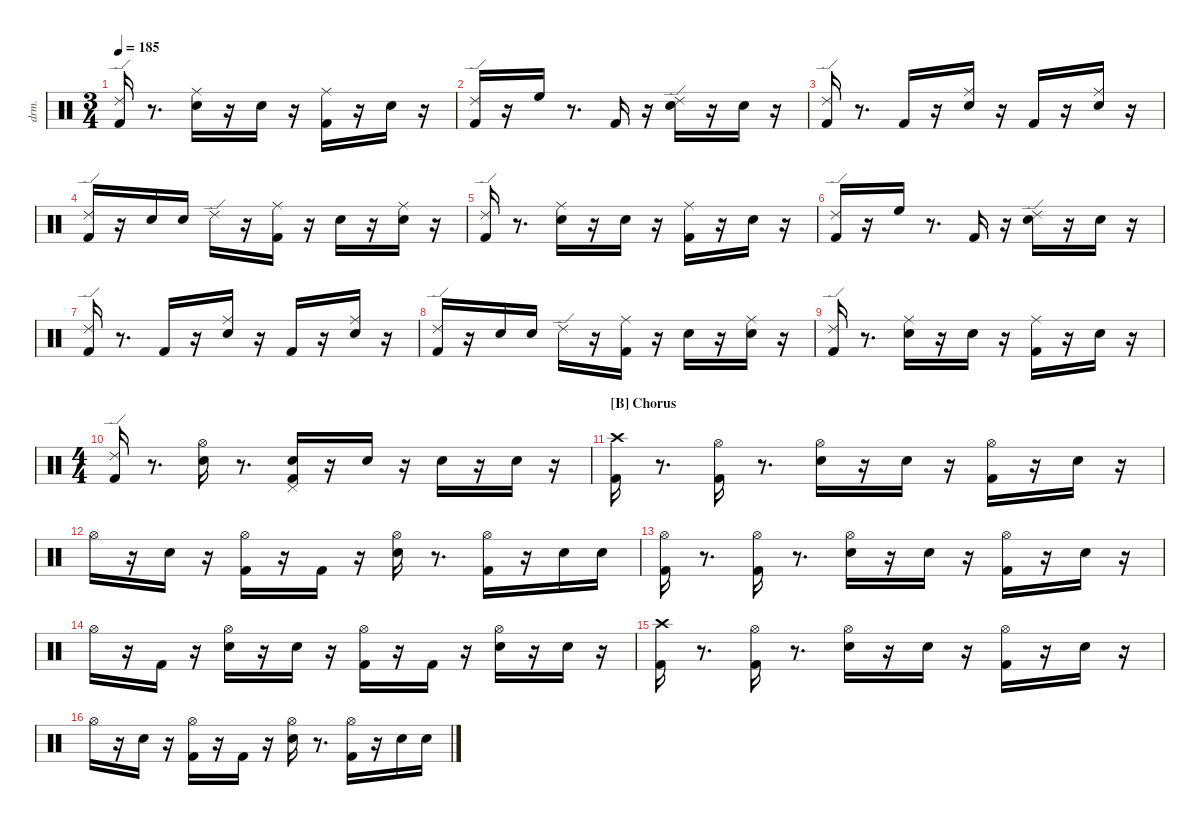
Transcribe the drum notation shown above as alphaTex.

\defaultSystemsLayout 4
\hideDynamics
\bracketExtendMode nobrackets
\otherSystemsTrackNameOrientation horizontal
\track ("drums" "drm.") {instrument percussion}
\staff {score}
\articulation defaults
\ts (3 4)
\tempo 185
\clef neutral
\ks aminor
("Kick (hit) 2" "Ride (edge) 2").16{dy ff beam Up} r.8{d beam Up} ("Snare (hit) 2" "Ride (middle)"{acc #}).16{beam Down} r.16{beam Down} "Snare (hit) 2".16{dy mf beam Down} r.16{beam Down} ("Kick (hit) 2" "Ride (middle)"{acc #}).16{dy ff beam Down} r.16{beam Down} "Snare (hit) 2".16{dy f beam Down} r.16{beam Down} |
("Kick (hit) 2" "Ride (edge) 2").16{dy ff beam Up} r.16{beam Up} "High Floor Tom (hit)".16{beam Down} r.8{d beam Down} "Kick (hit) 2".16{beam Up} r.16{beam Up} ("Snare (hit) 2" "Ride (edge) 2").16{dy fff beam Down} r.16{beam Down} "Snare (hit) 2".16{dy p beam Down} r.16{beam Down} |
("Kick (hit) 2" "Ride (edge) 2").16{dy ff beam Up} r.8{d beam Up} "Kick (hit) 2".16{beam Up} r.16{beam Up} ("Snare (hit) 2" "Ride (middle)"{acc #}).16{dy f beam Down} r.16{beam Down} "Kick (hit) 2".16{dy ff beam Up} r.16{beam Up} ("Snare (hit) 2" "Ride (middle)"{acc #}).16{beam Down} r.16{beam Down} |
("Kick (hit) 2" "Ride (edge) 2").16{beam Up} r.16{beam Up} "Snare (hit) 2".16{beam Down} "Snare (hit) 2".16{dy mf beam Down} "Ride (edge) 2".16{beam Down} r.16{beam Down} ("Kick (hit) 2" "Ride (middle)"{acc #}).16{dy ff beam Down} r.16{beam Down} "Snare (hit) 2".16{beam Down} r.16{beam Down} ("Snare (hit) 2" "Ride (middle)"{acc #}).16{dy mf beam Down} r.16{beam Down} |
("Kick (hit) 2" "Ride (edge) 2").16{dy ff beam Up} r.8{d beam Up} ("Snare (hit) 2" "Ride (middle)"{acc #}).16{beam Down} r.16{beam Down} "Snare (hit) 2".16{dy mf beam Down} r.16{beam Down} ("Kick (hit) 2" "Ride (middle)"{acc #}).16{dy ff beam Down} r.16{beam Down} "Snare (hit) 2".16{dy f beam Down} r.16{beam Down} |
("Kick (hit) 2" "Ride (edge) 2").16{dy ff beam Up} r.16{beam Up} "High Floor Tom (hit)".16{beam Down} r.8{d beam Down} "Kick (hit) 2".16{beam Up} r.16{beam Up} ("Snare (hit) 2" "Ride (edge) 2").16{dy fff beam Down} r.16{beam Down} "Snare (hit) 2".16{dy mp beam Down} r.16{beam Down} |
("Kick (hit) 2" "Ride (edge) 2").16{dy ff beam Up} r.8{d beam Up} "Kick (hit) 2".16{beam Up} r.16{beam Up} ("Snare (hit) 2" "Ride (middle)"{acc #}).16{dy f beam Down} r.16{beam Down} "Kick (hit) 2".16{dy ff beam Up} r.16{beam Up} ("Snare (hit) 2" "Ride (middle)"{acc #}).16{beam Down} r.16{beam Down} |
("Kick (hit) 2" "Ride (edge) 2").16{beam Up} r.16{beam Up} "Snare (hit) 2".16{beam Down} "Snare (hit) 2".16{dy mf beam Down} "Ride (edge) 2".16{beam Down} r.16{beam Down} ("Kick (hit) 2" "Ride (middle)"{acc #}).16{dy fff beam Down} r.16{beam Down} "Snare (hit) 2".16{dy ff beam Down} r.16{beam Down} ("Snare (hit) 2" "Ride (middle)"{acc #}).16{dy fff beam Down} r.16{beam Down} |
("Kick (hit) 2" "Ride (edge) 2").16{dy ff beam Up} r.8{d beam Up} ("Snare (hit) 2" "Ride (middle)"{acc #}).16{beam Down} r.16{beam Down} "Snare (hit) 2".16{dy mf beam Down} r.16{beam Down} ("Kick (hit) 2" "Ride (middle)"{acc #}).16{dy ff beam Down} r.16{beam Down} "Snare (hit) 2".16{dy f beam Down} r.16{beam Down} |
\ts (4 4)
("Kick (hit) 2" "Ride (edge) 2").16{dy ff beam Up} r.8{d beam Up} ("Snare (hit) 2" "Hi-Hat (open)"{acc #}).16{dy f beam Down} r.8{d beam Down} ("Kick (hit) 2" "Snare (hit) 2" "Pedal Hi-Hat (hit)"{acc #}).16{dy fff beam Up} r.16{beam Up} "Snare (hit) 2".16{beam Down} r.16{beam Down} "Snare (hit) 2".16{beam Down} r.16{beam Down} "Snare (hit) 2".16{dy ff beam Down} r.16{beam Down} |
\section ("B" "Chorus")
("Kick (hit) 2" "Crash high (hit)"{acc #}).16{dy fff beam Down} r.8{d beam Down} ("Kick (hit) 2" "Hi-Hat (open)"{acc #}).16{dy ff beam Down} r.8{d beam Down} ("Snare (hit) 2" "Hi-Hat (open)"{acc #}).16{beam Down} r.16{beam Down} "Snare (hit) 2".16{dy p beam Down} r.16{beam Down} ("Kick (hit) 2" "Hi-Hat (open)"{acc #}).16{dy ff beam Down} r.16{beam Down} "Snare (hit) 2".16{beam Down} r.16{beam Down} |
"Hi-Hat (open)"{acc #}.16{dy f beam Down} r.16{beam Down} "Snare (hit) 2".16{dy ff beam Down} r.16{beam Down} ("Kick (hit) 2" "Hi-Hat (open)"{acc #}).16{dy mf beam Down} r.16{beam Down} "Kick (hit) 2".16{dy ff beam Up} r.16{beam Up} ("Snare (hit) 2" "Hi-Hat (open)"{acc #}).16{beam Down} r.8{d beam Down} ("Kick (hit) 2" "Hi-Hat (open)"{acc #}).16{beam Down} r.16{beam Down} "Snare (hit) 2".16{dy mf beam Down} "Snare (hit) 2".16{dy pp beam Down} |
("Kick (hit) 2" "Hi-Hat (open)"{acc #}).16{dy ff beam Down} r.8{d beam Down} ("Kick (hit) 2" "Hi-Hat (open)"{acc #}).16{beam Down} r.8{d beam Down} ("Snare (hit) 2" "Hi-Hat (open)"{acc #}).16{beam Down} r.16{beam Down} "Snare (hit) 2".16{dy p beam Down} r.16{beam Down} ("Kick (hit) 2" "Hi-Hat (open)"{acc #}).16{dy ff beam Down} r.16{beam Down} "Snare (hit) 2".16{dy f beam Down} r.16{beam Down} |
"Hi-Hat (open)"{acc #}.16{dy ff beam Down} r.16{beam Down} "Kick (hit) 2".16{beam Up} r.16{beam Up} ("Snare (hit) 2" "Hi-Hat (open)"{acc #}).16{beam Down} r.16{beam Down} "Snare (hit) 2".16{dy p beam Down} r.16{beam Down} ("Kick (hit) 2" "Hi-Hat (open)"{acc #}).16{dy mf beam Down} r.16{beam Down} "Kick (hit) 2".16{dy ff beam Up} r.16{beam Up} ("Snare (hit) 2" "Hi-Hat (open)"{acc #}).16{beam Down} r.16{beam Down} "Snare (hit) 2".16{beam Down} r.16{beam Down} |
("Kick (hit) 2" "Crash high (hit)"{acc #}).16{beam Down} r.8{d beam Down} ("Kick (hit) 2" "Hi-Hat (open)"{acc #}).16{beam Down} r.8{d beam Down} ("Snare (hit) 2" "Hi-Hat (open)"{acc #}).16{beam Down} r.16{beam Down} "Snare (hit) 2".16{dy p beam Down} r.16{beam Down} ("Kick (hit) 2" "Hi-Hat (open)"{acc #}).16{dy ff beam Down} r.16{beam Down} "Snare (hit) 2".16{beam Down} r.16{beam Down} |
"Hi-Hat (open)"{acc #}.16{dy f beam Down} r.16{beam Down} "Snare (hit) 2".16{dy ff beam Down} r.16{beam Down} ("Kick (hit) 2" "Hi-Hat (open)"{acc #}).16{dy f beam Down} r.16{beam Down} "Kick (hit) 2".16{dy ff beam Up} r.16{beam Up} ("Snare (hit) 2" "Hi-Hat (open)"{acc #}).16{beam Down} r.8{d beam Down} ("Kick (hit) 2" "Hi-Hat (open)"{acc #}).16{beam Down} r.16{beam Down} "Snare (hit) 2".16{dy mf beam Down} "Snare (hit) 2".16{dy pp beam Down}
